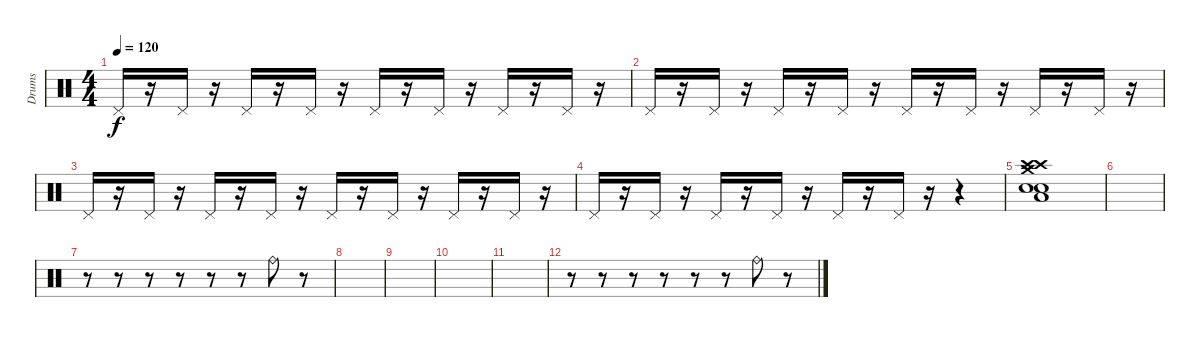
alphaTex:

\track ("Drums" "Drums") {instrument percussion}
\staff {score}
\articulation defaults
\ts (4 4)
\tempo 120
\clef neutral
\ks c "Pedal Hi-Hat (hit)".16{dy f}
r.16 "Pedal Hi-Hat (hit)".16 r.16 "Pedal Hi-Hat (hit)".16 r.16 "Pedal Hi-Hat (hit)".16 r.16 "Pedal Hi-Hat (hit)".16 r.16 "Pedal Hi-Hat (hit)".16 r.16 "Pedal Hi-Hat (hit)".16 r.16 "Pedal Hi-Hat (hit)".16 r.16 |
"Pedal Hi-Hat (hit)".16 r.16 "Pedal Hi-Hat (hit)".16 r.16 "Pedal Hi-Hat (hit)".16 r.16 "Pedal Hi-Hat (hit)".16 r.16 "Pedal Hi-Hat (hit)".16 r.16 "Pedal Hi-Hat (hit)".16 r.16 "Pedal Hi-Hat (hit)".16 r.16 "Pedal Hi-Hat (hit)".16 r.16 |
"Pedal Hi-Hat (hit)".16 r.16 "Pedal Hi-Hat (hit)".16 r.16 "Pedal Hi-Hat (hit)".16 r.16 "Pedal Hi-Hat (hit)".16 r.16 "Pedal Hi-Hat (hit)".16 r.16 "Pedal Hi-Hat (hit)".16 r.16 "Pedal Hi-Hat (hit)".16 r.16 "Pedal Hi-Hat (hit)".16 r.16 |
"Pedal Hi-Hat (hit)".16 r.16 "Pedal Hi-Hat (hit)".16 r.16 "Pedal Hi-Hat (hit)".16 r.16 "Pedal Hi-Hat (hit)".16 r.16 "Pedal Hi-Hat (hit)".16 r.16 "Pedal Hi-Hat (hit)".16 r.16 r.4 |
("Crash high (hit)" "Crash high (hit)" "Crash medium (hit)" "Low Floor Tom (hit)" "Electric Snare (hit)" "Electric Snare (hit)").1 |
|
r.8 r.8 r.8 r.8 r.8 r.8 "Ride (bell)".8 r.8 |
|
|
|
|
r.8 r.8 r.8 r.8 r.8 r.8 "Ride (bell)".8 r.8
